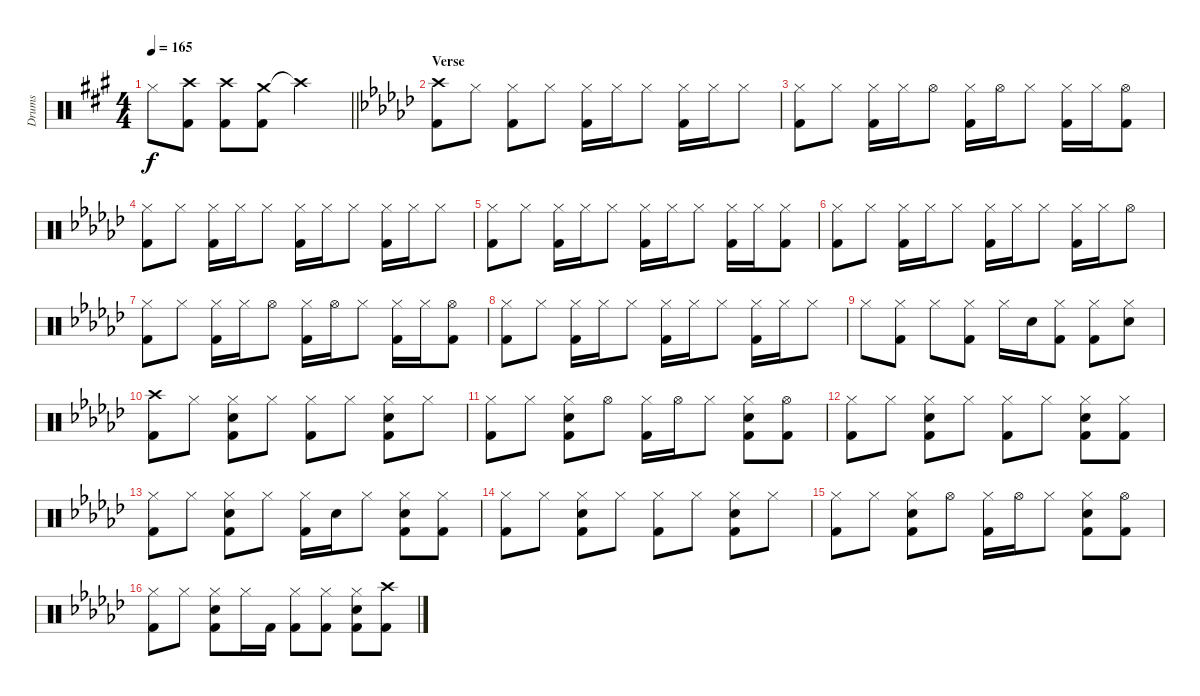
\track ("Drums" "Drums") {instrument percussion}
\staff {score}
\articulation defaults
\ts (4 4)
\tempo 165
\clef neutral
\barLineRight lightlight
\ks a "Hi-Hat (closed)"{t}.8{dy f}
("Crash high (hit)" "Kick (hit) 2").8 ("Crash high (hit)" "Kick (hit) 2").8 ("Crash medium (hit)" "Kick (hit) 2").8 "Crash high (hit)"{t}.2 |
\section ("" "Verse")
\ks gb
("Crash high (hit)" "Kick (hit) 2").8 "Hi-Hat (closed)".8 ("Hi-Hat (closed)" "Kick (hit) 2").8 "Hi-Hat (closed)".8 ("Hi-Hat (closed)" "Kick (hit) 2").16 "Hi-Hat (closed)".16 "Hi-Hat (closed)".8 ("Hi-Hat (closed)" "Kick (hit) 2").16 "Hi-Hat (closed)".16 "Hi-Hat (closed)".8 |
("Hi-Hat (closed)" "Kick (hit) 2").8 "Hi-Hat (closed)".8 ("Hi-Hat (closed)" "Kick (hit) 2").16 "Hi-Hat (closed)".16 "Hi-Hat (open)".8 ("Hi-Hat (closed)" "Kick (hit) 2").16 "Hi-Hat (open)".16 "Hi-Hat (closed)".8 ("Hi-Hat (closed)" "Kick (hit) 2").16 "Hi-Hat (closed)".16 ("Hi-Hat (open)" "Kick (hit) 2").8 |
("Hi-Hat (closed)" "Kick (hit) 2").8 "Hi-Hat (closed)".8 ("Hi-Hat (closed)" "Kick (hit) 2").16 "Hi-Hat (closed)".16 "Hi-Hat (closed)".8 ("Hi-Hat (closed)" "Kick (hit) 2").16 "Hi-Hat (closed)".16 "Hi-Hat (closed)".8 ("Hi-Hat (closed)" "Kick (hit) 2").16 "Hi-Hat (closed)".16 "Hi-Hat (closed)".8 |
("Hi-Hat (closed)" "Kick (hit) 2").8 "Hi-Hat (closed)".8 ("Hi-Hat (closed)" "Kick (hit) 2").16 "Hi-Hat (closed)".16 "Hi-Hat (closed)".8 ("Hi-Hat (closed)" "Kick (hit) 2").16 "Hi-Hat (closed)".16 "Hi-Hat (closed)".8 ("Hi-Hat (closed)" "Kick (hit) 2").16 "Hi-Hat (closed)".16 ("Hi-Hat (closed)" "Kick (hit) 2").8 |
("Hi-Hat (closed)" "Kick (hit) 2").8 "Hi-Hat (closed)".8 ("Hi-Hat (closed)" "Kick (hit) 2").16 "Hi-Hat (closed)".16 "Hi-Hat (closed)".8 ("Hi-Hat (closed)" "Kick (hit) 2").16 "Hi-Hat (closed)".16 "Hi-Hat (closed)".8 ("Hi-Hat (closed)" "Kick (hit) 2").16 "Hi-Hat (closed)".16 "Hi-Hat (open)".8 |
("Hi-Hat (closed)" "Kick (hit) 2").8 "Hi-Hat (closed)".8 ("Hi-Hat (closed)" "Kick (hit) 2").16 "Hi-Hat (closed)".16 "Hi-Hat (open)".8 ("Hi-Hat (closed)" "Kick (hit) 2").16 "Hi-Hat (open)".16 "Hi-Hat (closed)".8 ("Hi-Hat (closed)" "Kick (hit) 2").16 "Hi-Hat (closed)".16 ("Hi-Hat (open)" "Kick (hit) 2").8 |
("Hi-Hat (closed)" "Kick (hit) 2").8 "Hi-Hat (closed)".8 ("Hi-Hat (closed)" "Kick (hit) 2").16 "Hi-Hat (closed)".16 "Hi-Hat (closed)".8 ("Hi-Hat (closed)" "Kick (hit) 2").16 "Hi-Hat (closed)".16 "Hi-Hat (closed)".8 ("Hi-Hat (closed)" "Kick (hit) 2").16 "Hi-Hat (closed)".16 "Hi-Hat (closed)".8 |
"Hi-Hat (closed)".8 ("Hi-Hat (closed)" "Kick (hit) 2").8 "Hi-Hat (closed)".8 ("Hi-Hat (closed)" "Kick (hit) 2").8 "Hi-Hat (closed)".16 "Snare (hit) 2".16 ("Hi-Hat (closed)" "Kick (hit) 2").8 ("Hi-Hat (closed)" "Kick (hit) 2").8 ("Hi-Hat (closed)" "Snare (hit) 2").8 |
("Crash high (hit)" "Kick (hit) 2").8 "Hi-Hat (closed)".8 ("Hi-Hat (closed)" "Snare (hit) 2" "Kick (hit) 2").8 "Hi-Hat (closed)".8 ("Hi-Hat (closed)" "Kick (hit) 2").8 "Hi-Hat (closed)".8 ("Hi-Hat (closed)" "Snare (hit) 2" "Kick (hit) 2").8 "Hi-Hat (closed)".8 |
("Hi-Hat (closed)" "Kick (hit) 2").8 "Hi-Hat (closed)".8 ("Hi-Hat (closed)" "Snare (hit) 2" "Kick (hit) 2").8 "Hi-Hat (open)".8 ("Hi-Hat (closed)" "Kick (hit) 2").16 "Hi-Hat (open)".16 "Hi-Hat (closed)".8 ("Hi-Hat (closed)" "Snare (hit) 2" "Kick (hit) 2").8 ("Hi-Hat (open)" "Kick (hit) 2").8 |
("Hi-Hat (closed)" "Kick (hit) 2").8 "Hi-Hat (closed)".8 ("Hi-Hat (closed)" "Snare (hit) 2" "Kick (hit) 2").8 "Hi-Hat (closed)".8 ("Hi-Hat (closed)" "Kick (hit) 2").8 "Hi-Hat (closed)".8 ("Hi-Hat (closed)" "Snare (hit) 2" "Kick (hit) 2").8 ("Hi-Hat (closed)" "Kick (hit) 2").8 |
("Hi-Hat (closed)" "Kick (hit) 2").8 "Hi-Hat (closed)".8 ("Hi-Hat (closed)" "Snare (hit) 2" "Kick (hit) 2").8 "Hi-Hat (closed)".8 ("Hi-Hat (closed)" "Kick (hit) 2").16 "Snare (hit) 2".16 "Hi-Hat (closed)".8 ("Hi-Hat (closed)" "Snare (hit) 2" "Kick (hit) 2").8 ("Hi-Hat (closed)" "Kick (hit) 2").8 |
("Hi-Hat (closed)" "Kick (hit) 2").8 "Hi-Hat (closed)".8 ("Hi-Hat (closed)" "Snare (hit) 2" "Kick (hit) 2").8 "Hi-Hat (closed)".8 ("Hi-Hat (closed)" "Kick (hit) 2").8 "Hi-Hat (closed)".8 ("Hi-Hat (closed)" "Snare (hit) 2" "Kick (hit) 2").8 "Hi-Hat (closed)".8 |
("Hi-Hat (closed)" "Kick (hit) 2").8 "Hi-Hat (closed)".8 ("Hi-Hat (closed)" "Snare (hit) 2" "Kick (hit) 2").8 "Hi-Hat (open)".8 ("Hi-Hat (closed)" "Kick (hit) 2").16 "Hi-Hat (open)".16 "Hi-Hat (closed)".8 ("Hi-Hat (closed)" "Snare (hit) 2" "Kick (hit) 2").8 ("Hi-Hat (open)" "Kick (hit) 2").8 |
("Hi-Hat (closed)" "Kick (hit) 2").8 "Hi-Hat (closed)".8 ("Hi-Hat (closed)" "Snare (hit) 2" "Kick (hit) 2").8 "Hi-Hat (closed)".16 "Kick (hit) 2".16 ("Hi-Hat (closed)" "Kick (hit) 2").8 ("Hi-Hat (closed)" "Kick (hit) 2").8 ("Hi-Hat (closed)" "Snare (hit) 2" "Kick (hit) 2").8 ("Crash high (hit)" "Kick (hit) 2").8
